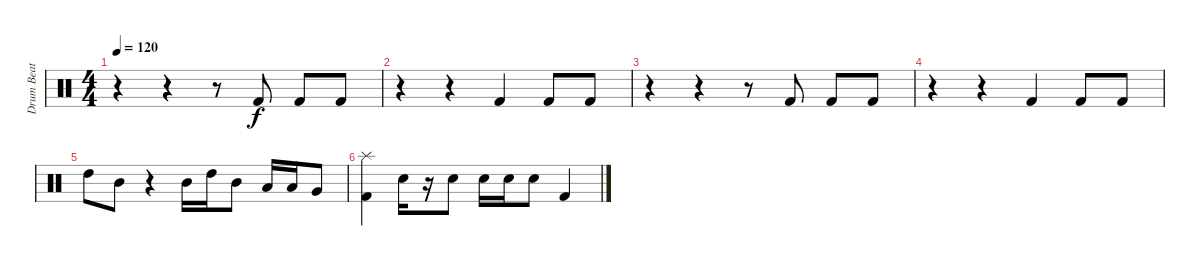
\track ("Drum Beat" "Drum Beat") {instrument percussion}
\staff {score}
\articulation defaults
\ts (4 4)
\tempo 120
\clef neutral
\ks c
r.4{dy f} r.4 r.8 "Kick (hit) 2".8 "Kick (hit) 2".8 "Kick (hit) 2".8 |
r.4 r.4 "Kick (hit) 2".4 "Kick (hit) 2".8 "Kick (hit) 2".8 |
r.4 r.4 r.8 "Kick (hit) 2".8 "Kick (hit) 2".8 "Kick (hit) 2".8 |
r.4 r.4 "Kick (hit) 2".4 "Kick (hit) 2".8 "Kick (hit) 2".8 |
"High Tom (hit)".8 "Mid Tom (hit)".8 r.4 "Mid Tom (hit)".16 "High Tom (hit)".16 "Mid Tom (hit)".8 "Low Tom (hit)".16 "Low Tom (hit)".16 "Very Low Tom (hit)".8 |
("Kick (hit) 2" "Splash (hit)").4 "Electric Snare (hit)".16 r.16 "Electric Snare (hit)".8 "Electric Snare (hit)".16 "Electric Snare (hit)".16 "Electric Snare (hit)".8 "Kick (hit) 2".4
